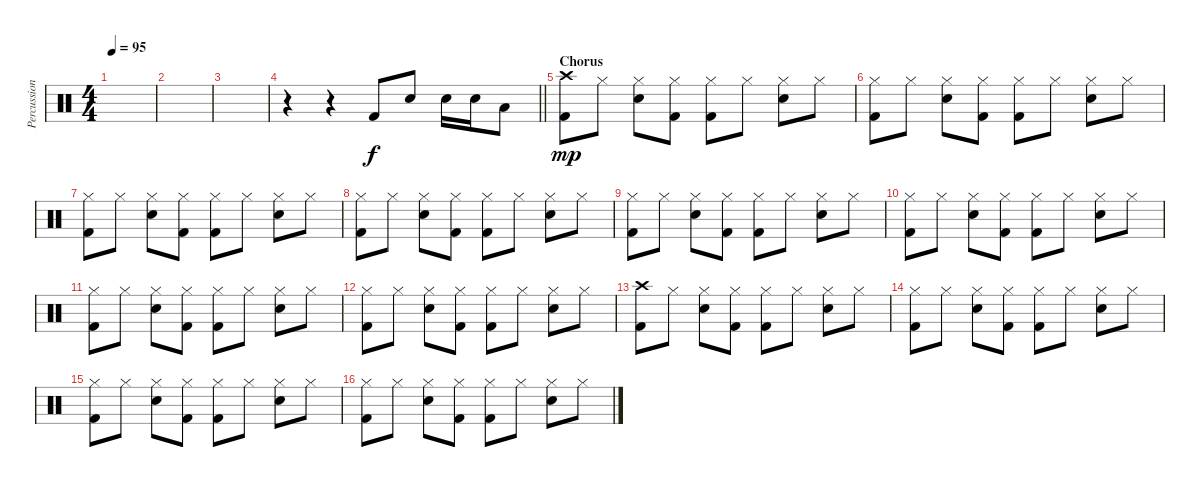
\track ("Percussioni" "Percussion") {instrument percussion}
\staff {score}
\articulation defaults
\ts (4 4)
\tempo 95
\clef neutral
\ks c
|
|
|
\barLineRight lightlight
r.4 r.4 "Kick (hit) 2".8 "Snare (hit) 2".8 "Snare (hit) 2".16 "Snare (hit) 2".16 "Low Tom (hit)".8 |
\section ("" "Chorus")
("Crash high (hit)" "Kick (hit) 2").8{dy mp} "Hi-Hat (closed)".8 ("Hi-Hat (closed)" "Snare (hit) 2").8 ("Hi-Hat (closed)" "Kick (hit) 2").8 ("Hi-Hat (closed)" "Kick (hit) 2").8 "Hi-Hat (closed)".8 ("Hi-Hat (closed)" "Snare (hit) 2").8 "Hi-Hat (closed)".8 |
("Hi-Hat (closed)" "Kick (hit) 2").8 "Hi-Hat (closed)".8 ("Hi-Hat (closed)" "Snare (hit) 2").8 ("Hi-Hat (closed)" "Kick (hit) 2").8 ("Hi-Hat (closed)" "Kick (hit) 2").8 "Hi-Hat (closed)".8 ("Hi-Hat (closed)" "Snare (hit) 2").8 "Hi-Hat (closed)".8 |
("Hi-Hat (closed)" "Kick (hit) 2").8 "Hi-Hat (closed)".8 ("Hi-Hat (closed)" "Snare (hit) 2").8 ("Hi-Hat (closed)" "Kick (hit) 2").8 ("Hi-Hat (closed)" "Kick (hit) 2").8 "Hi-Hat (closed)".8 ("Hi-Hat (closed)" "Snare (hit) 2").8 "Hi-Hat (closed)".8 |
("Hi-Hat (closed)" "Kick (hit) 2").8 "Hi-Hat (closed)".8 ("Hi-Hat (closed)" "Snare (hit) 2").8 ("Hi-Hat (closed)" "Kick (hit) 2").8 ("Hi-Hat (closed)" "Kick (hit) 2").8 "Hi-Hat (closed)".8 ("Hi-Hat (closed)" "Snare (hit) 2").8 "Hi-Hat (closed)".8 |
("Hi-Hat (closed)" "Kick (hit) 2").8 "Hi-Hat (closed)".8 ("Hi-Hat (closed)" "Snare (hit) 2").8 ("Hi-Hat (closed)" "Kick (hit) 2").8 ("Hi-Hat (closed)" "Kick (hit) 2").8 "Hi-Hat (closed)".8 ("Hi-Hat (closed)" "Snare (hit) 2").8 "Hi-Hat (closed)".8 |
("Hi-Hat (closed)" "Kick (hit) 2").8 "Hi-Hat (closed)".8 ("Hi-Hat (closed)" "Snare (hit) 2").8 ("Hi-Hat (closed)" "Kick (hit) 2").8 ("Hi-Hat (closed)" "Kick (hit) 2").8 "Hi-Hat (closed)".8 ("Hi-Hat (closed)" "Snare (hit) 2").8 "Hi-Hat (closed)".8 |
("Hi-Hat (closed)" "Kick (hit) 2").8 "Hi-Hat (closed)".8 ("Hi-Hat (closed)" "Snare (hit) 2").8 ("Hi-Hat (closed)" "Kick (hit) 2").8 ("Hi-Hat (closed)" "Kick (hit) 2").8 "Hi-Hat (closed)".8 ("Hi-Hat (closed)" "Snare (hit) 2").8 "Hi-Hat (closed)".8 |
("Hi-Hat (closed)" "Kick (hit) 2").8 "Hi-Hat (closed)".8 ("Hi-Hat (closed)" "Snare (hit) 2").8 ("Hi-Hat (closed)" "Kick (hit) 2").8 ("Hi-Hat (closed)" "Kick (hit) 2").8 "Hi-Hat (closed)".8 ("Hi-Hat (closed)" "Snare (hit) 2").8 "Hi-Hat (closed)".8 |
("Crash high (hit)" "Kick (hit) 2").8 "Hi-Hat (closed)".8 ("Hi-Hat (closed)" "Snare (hit) 2").8 ("Hi-Hat (closed)" "Kick (hit) 2").8 ("Hi-Hat (closed)" "Kick (hit) 2").8 "Hi-Hat (closed)".8 ("Hi-Hat (closed)" "Snare (hit) 2").8 "Hi-Hat (closed)".8 |
("Hi-Hat (closed)" "Kick (hit) 2").8 "Hi-Hat (closed)".8 ("Hi-Hat (closed)" "Snare (hit) 2").8 ("Hi-Hat (closed)" "Kick (hit) 2").8 ("Hi-Hat (closed)" "Kick (hit) 2").8 "Hi-Hat (closed)".8 ("Hi-Hat (closed)" "Snare (hit) 2").8 "Hi-Hat (closed)".8 |
("Hi-Hat (closed)" "Kick (hit) 2").8 "Hi-Hat (closed)".8 ("Hi-Hat (closed)" "Snare (hit) 2").8 ("Hi-Hat (closed)" "Kick (hit) 2").8 ("Hi-Hat (closed)" "Kick (hit) 2").8 "Hi-Hat (closed)".8 ("Hi-Hat (closed)" "Snare (hit) 2").8 "Hi-Hat (closed)".8 |
("Hi-Hat (closed)" "Kick (hit) 2").8 "Hi-Hat (closed)".8 ("Hi-Hat (closed)" "Snare (hit) 2").8 ("Hi-Hat (closed)" "Kick (hit) 2").8 ("Hi-Hat (closed)" "Kick (hit) 2").8 "Hi-Hat (closed)".8 ("Hi-Hat (closed)" "Snare (hit) 2").8 "Hi-Hat (closed)".8
